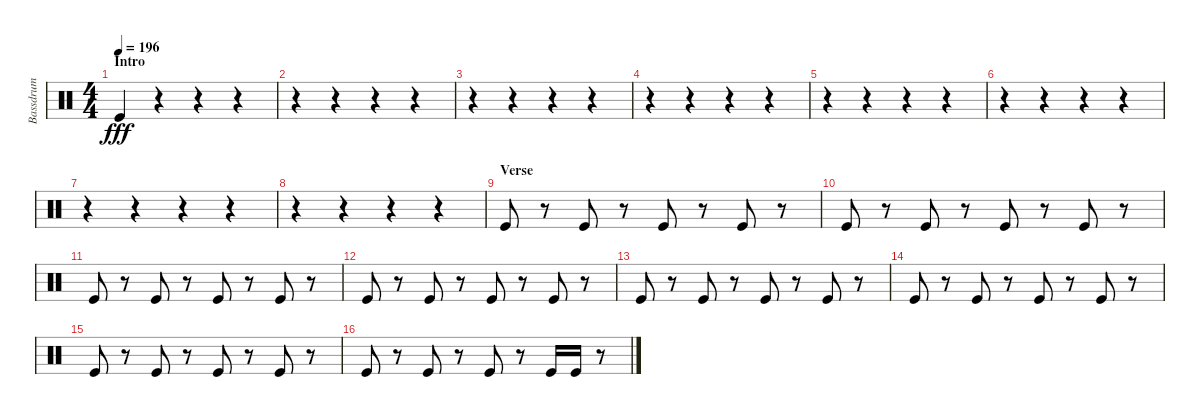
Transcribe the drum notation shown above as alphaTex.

\track ("Bassdrum" "Bassdrum") {instrument percussion}
\staff {score}
\articulation defaults
\ts (4 4)
\section ("" "Intro")
\tempo 196
\clef neutral
\ks c "Kick (hit)".4{dy fff}
r.4 r.4 r.4 |
r.4 r.4 r.4 r.4 |
r.4 r.4 r.4 r.4 |
r.4 r.4 r.4 r.4 |
r.4 r.4 r.4 r.4 |
r.4 r.4 r.4 r.4 |
r.4 r.4 r.4 r.4 |
r.4 r.4 r.4 r.4 |
\section ("" "Verse")
"Kick (hit)".8 r.8 "Kick (hit)".8 r.8 "Kick (hit)".8 r.8 "Kick (hit)".8 r.8 |
"Kick (hit)".8 r.8 "Kick (hit)".8 r.8 "Kick (hit)".8 r.8 "Kick (hit)".8 r.8 |
"Kick (hit)".8 r.8 "Kick (hit)".8 r.8 "Kick (hit)".8 r.8 "Kick (hit)".8 r.8 |
"Kick (hit)".8 r.8 "Kick (hit)".8 r.8 "Kick (hit)".8 r.8 "Kick (hit)".8 r.8 |
"Kick (hit)".8 r.8 "Kick (hit)".8 r.8 "Kick (hit)".8 r.8 "Kick (hit)".8 r.8 |
"Kick (hit)".8 r.8 "Kick (hit)".8 r.8 "Kick (hit)".8 r.8 "Kick (hit)".8 r.8 |
"Kick (hit)".8 r.8 "Kick (hit)".8 r.8 "Kick (hit)".8 r.8 "Kick (hit)".8 r.8 |
"Kick (hit)".8 r.8 "Kick (hit)".8 r.8 "Kick (hit)".8 r.8 "Kick (hit)".16 "Kick (hit)".16 r.8
